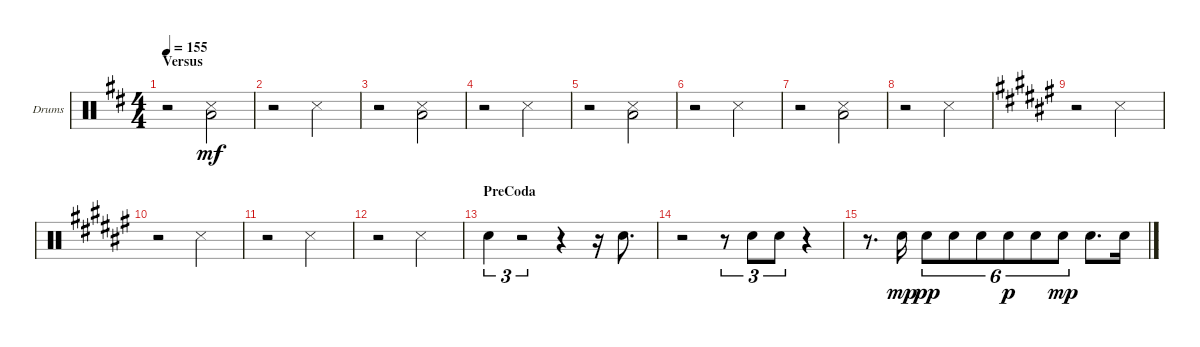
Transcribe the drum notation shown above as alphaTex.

\bracketExtendMode groupsimilarinstruments
\firstSystemTrackNameOrientation horizontal
\otherSystemsTrackNameOrientation horizontal
\track ("Drums" "Drums") {instrument percussion}
\staff {score}
\articulation defaults
\ts (4 4)
\section ("" "Versus")
\tempo 155
\clef neutral
\ks d
r.2{dy mf} ("Snare (side stick) 3" "Low Tom (hit)").2 |
r.2 "Snare (side stick) 3".2 |
r.2 ("Snare (side stick) 3" "Low Tom (hit)").2 |
r.2 "Snare (side stick) 3".2 |
r.2 ("Snare (side stick) 3" "Low Tom (hit)").2 |
r.2 "Snare (side stick) 3".2 |
r.2 ("Snare (side stick) 3" "Low Tom (hit)").2 |
r.2 "Snare (side stick) 3".2 |
\ks f#
r.2 "Snare (side stick) 3".2 |
r.2 "Snare (side stick) 3".2 |
r.2 "Snare (side stick) 3".2 |
r.2 "Snare (side stick) 3".2 |
\section ("" "PreCoda")
"Snare (hit) 2".4{tu (3 2)} r.2{tu (3 2)} r.4 r.16 "Snare (hit) 2".8{d} |
r.2 r.8{tu (3 2)} "Snare (hit) 2".8{tu (3 2)} "Snare (hit) 2".8{tu (3 2)} r.4 |
r.8{d} "Snare (hit) 2".16{dy mp} "Snare (hit) 2".8{tu (6 4) dy pp} "Snare (hit) 2".8{tu (6 4)} "Snare (hit) 2".8{tu (6 4)} "Snare (hit) 2".8{tu (6 4) dy p} "Snare (hit) 2".8{tu (6 4)} "Snare (hit) 2".8{tu (6 4) dy mp} "Snare (hit) 2".8{d} "Snare (hit) 2".16
